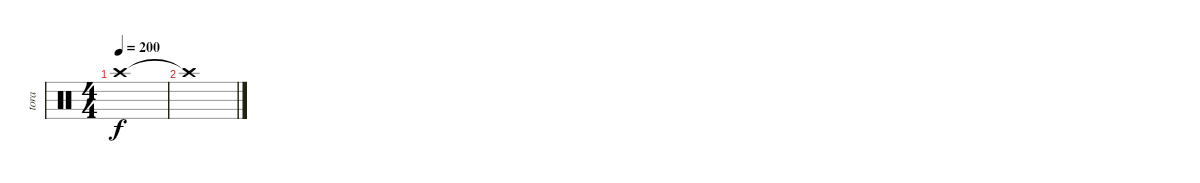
\track ("tora" "tora") {instrument percussion}
\staff {score}
\articulation defaults
\ts (4 4)
\tempo 200
\clef neutral
\ks c "Crash high (hit)"{t}.1{dy f}
|
"Crash high (hit)"{t}.1
